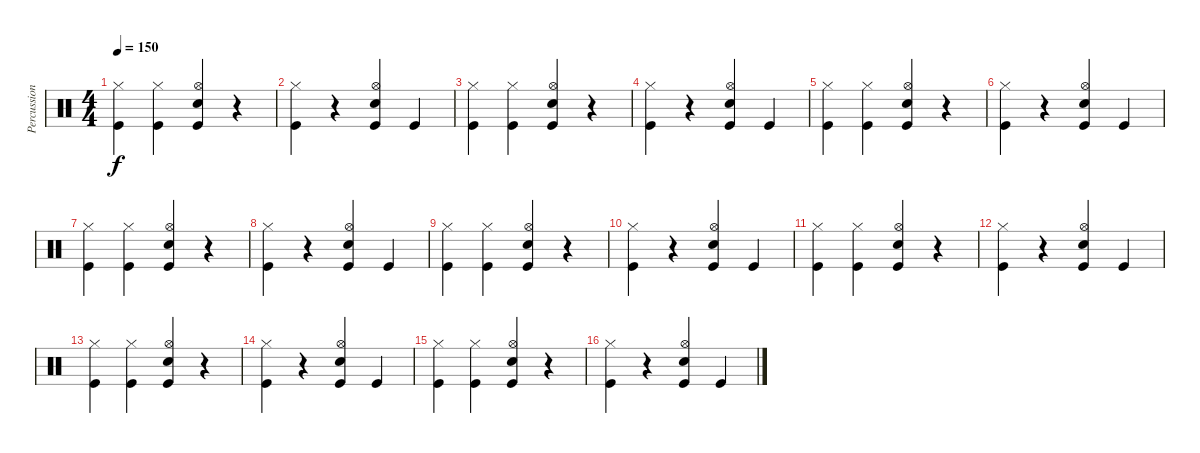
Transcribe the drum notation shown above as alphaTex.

\track ("Percussion" "Percussion") {instrument percussion}
\staff {score}
\articulation defaults
\ts (4 4)
\tempo 150
\clef neutral
\ks c
("Hi-Hat (closed)" "Kick (hit)").4{dy f} ("Hi-Hat (closed)" "Kick (hit)").4 ("Hi-Hat (open)" "Kick (hit)" "Electric Snare (hit)").4 r.4 |
("Hi-Hat (closed)" "Kick (hit)").4 r.4 ("Hi-Hat (open)" "Kick (hit)" "Electric Snare (hit)").4 "Kick (hit)".4 |
("Hi-Hat (closed)" "Kick (hit)").4 ("Hi-Hat (closed)" "Kick (hit)").4 ("Hi-Hat (open)" "Kick (hit)" "Electric Snare (hit)").4 r.4 |
("Hi-Hat (closed)" "Kick (hit)").4 r.4 ("Hi-Hat (open)" "Kick (hit)" "Electric Snare (hit)").4 "Kick (hit)".4 |
("Hi-Hat (closed)" "Kick (hit)").4 ("Hi-Hat (closed)" "Kick (hit)").4 ("Hi-Hat (open)" "Kick (hit)" "Electric Snare (hit)").4 r.4 |
("Hi-Hat (closed)" "Kick (hit)").4 r.4 ("Hi-Hat (open)" "Kick (hit)" "Electric Snare (hit)").4 "Kick (hit)".4 |
("Hi-Hat (closed)" "Kick (hit)").4 ("Hi-Hat (closed)" "Kick (hit)").4 ("Hi-Hat (open)" "Kick (hit)" "Electric Snare (hit)").4 r.4 |
("Hi-Hat (closed)" "Kick (hit)").4 r.4 ("Hi-Hat (open)" "Kick (hit)" "Electric Snare (hit)").4 "Kick (hit)".4 |
("Hi-Hat (closed)" "Kick (hit)").4 ("Hi-Hat (closed)" "Kick (hit)").4 ("Hi-Hat (open)" "Kick (hit)" "Electric Snare (hit)").4 r.4 |
("Hi-Hat (closed)" "Kick (hit)").4 r.4 ("Hi-Hat (open)" "Kick (hit)" "Electric Snare (hit)").4 "Kick (hit)".4 |
("Hi-Hat (closed)" "Kick (hit)").4 ("Hi-Hat (closed)" "Kick (hit)").4 ("Hi-Hat (open)" "Kick (hit)" "Electric Snare (hit)").4 r.4 |
("Hi-Hat (closed)" "Kick (hit)").4 r.4 ("Hi-Hat (open)" "Kick (hit)" "Electric Snare (hit)").4 "Kick (hit)".4 |
("Hi-Hat (closed)" "Kick (hit)").4 ("Hi-Hat (closed)" "Kick (hit)").4 ("Hi-Hat (open)" "Kick (hit)" "Electric Snare (hit)").4 r.4 |
("Hi-Hat (closed)" "Kick (hit)").4 r.4 ("Hi-Hat (open)" "Kick (hit)" "Electric Snare (hit)").4 "Kick (hit)".4 |
("Hi-Hat (closed)" "Kick (hit)").4 ("Hi-Hat (closed)" "Kick (hit)").4 ("Hi-Hat (open)" "Kick (hit)" "Electric Snare (hit)").4 r.4 |
("Hi-Hat (closed)" "Kick (hit)").4 r.4 ("Hi-Hat (open)" "Kick (hit)" "Electric Snare (hit)").4 "Kick (hit)".4
